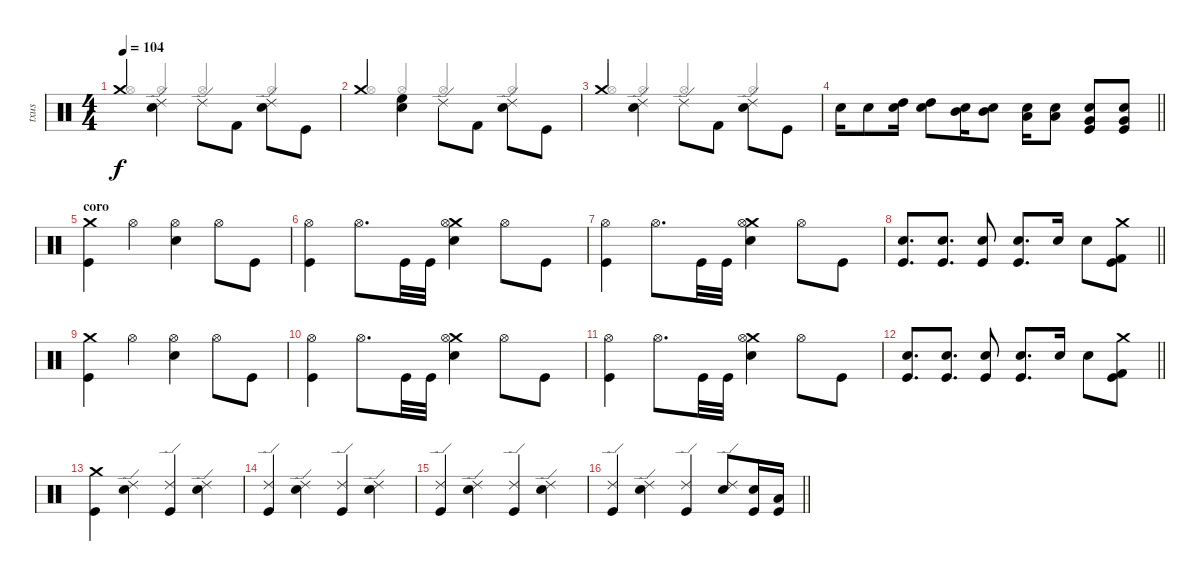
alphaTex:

\track ("txus" "txus") {instrument percussion}
\staff {score}
\articulation defaults
\voice
\ts (4 4)
\tempo 104
\clef neutral
\ks c "Crash medium (hit)".4{dy f}
("Ride (edge) 2" "Electric Snare (hit)").4{beam Down} "Ride (edge) 2".8 "Kick (hit) 2".8{beam Down} ("Ride (edge) 2" "Electric Snare (hit)").8{beam Down} "Kick (hit)".8 |
"Crash medium (hit)".4 ("High Floor Tom (hit)" "Electric Snare (hit)").4{beam Down} "Ride (edge) 2".8 "Kick (hit) 2".8{beam Down} ("Ride (edge) 2" "Electric Snare (hit)").8{beam Down} "Kick (hit)".8 |
"Crash medium (hit)".4 ("Ride (edge) 2" "Electric Snare (hit)").4{beam Down} "Ride (edge) 2".8 "Kick (hit) 2".8{beam Down} ("Ride (edge) 2" "Electric Snare (hit)").8{beam Down} "Kick (hit)".8 |
\barLineRight lightlight "Electric Snare (hit)".16 "Electric Snare (hit)".8
("High Tom (hit)" "Electric Snare (hit)").16 ("High Tom (hit)" "Electric Snare (hit)").8 ("Mid Tom (hit)" "Electric Snare (hit)").16 ("Mid Tom (hit)" "Electric Snare (hit)").8 ("Low Tom (hit)" "Electric Snare (hit)").16 ("Low Tom (hit)" "Electric Snare (hit)").8 ("Electric Snare (hit)" "Very Low Tom (hit)" "Kick (hit)").8 ("Electric Snare (hit)" "Very Low Tom (hit)" "Kick (hit)").8 |
\section ("" "coro")
("Crash medium (hit)" "Kick (hit)").4 "Hi-Hat (open)".4 ("Hi-Hat (open)" "Electric Snare (hit)").4 "Hi-Hat (open)".8 "Kick (hit)".8 |
("Hi-Hat (open)" "Kick (hit)").4 "Hi-Hat (open)".8{d} "Kick (hit)".32 "Kick (hit)".32 ("Crash medium (hit)" "Hi-Hat (open)" "Electric Snare (hit)").4 "Hi-Hat (open)".8 "Kick (hit)".8 |
("Hi-Hat (open)" "Kick (hit)").4 "Hi-Hat (open)".8{d} "Kick (hit)".32 "Kick (hit)".32 ("Crash medium (hit)" "Hi-Hat (open)" "Electric Snare (hit)").4 "Hi-Hat (open)".8 "Kick (hit)".8 |
\barLineRight lightlight
("Snare (hit) 2" "Kick (hit)").8{d} ("Snare (hit) 2" "Kick (hit)").8{d} ("Snare (hit) 2" "Kick (hit)").8 ("Snare (hit) 2" "Kick (hit)").8{d} "Snare (hit) 2".16 "Snare (hit) 2".8 ("Crash medium (hit)" "Kick (hit) 2" "Kick (hit)").8 |
("Crash medium (hit)" "Kick (hit)").4 "Hi-Hat (open)".4 ("Hi-Hat (open)" "Electric Snare (hit)").4 "Hi-Hat (open)".8 "Kick (hit)".8 |
("Hi-Hat (open)" "Kick (hit)").4 "Hi-Hat (open)".8{d} "Kick (hit)".32 "Kick (hit)".32 ("Crash medium (hit)" "Hi-Hat (open)" "Electric Snare (hit)").4 "Hi-Hat (open)".8 "Kick (hit)".8 |
("Hi-Hat (open)" "Kick (hit)").4 "Hi-Hat (open)".8{d} "Kick (hit)".32 "Kick (hit)".32 ("Crash medium (hit)" "Hi-Hat (open)" "Electric Snare (hit)").4 "Hi-Hat (open)".8 "Kick (hit)".8 |
\barLineRight lightlight
("Snare (hit) 2" "Kick (hit)").8{d} ("Snare (hit) 2" "Kick (hit)").8{d} ("Snare (hit) 2" "Kick (hit)").8 ("Snare (hit) 2" "Kick (hit)").8{d} "Snare (hit) 2".16 "Snare (hit) 2".8 ("Crash medium (hit)" "Kick (hit) 2" "Kick (hit)").8 |
("Crash medium (hit)" "Kick (hit)").4 ("Ride (edge) 2" "Electric Snare (hit)").4 ("Ride (edge) 2" "Kick (hit)").4 ("Ride (edge) 2" "Electric Snare (hit)").4 |
("Ride (edge) 2" "Kick (hit)").4 ("Ride (edge) 2" "Electric Snare (hit)").4 ("Ride (edge) 2" "Kick (hit)").4 ("Ride (edge) 2" "Electric Snare (hit)").4 |
("Ride (edge) 2" "Kick (hit)").4 ("Ride (edge) 2" "Electric Snare (hit)").4 ("Ride (edge) 2" "Kick (hit)").4 ("Ride (edge) 2" "Electric Snare (hit)").4 |
\barLineRight lightlight
("Ride (edge) 2" "Kick (hit)").4 ("Ride (edge) 2" "Electric Snare (hit)").4 ("Ride (edge) 2" "Kick (hit)").4 ("Ride (edge) 2" "Electric Snare (hit)").8 ("Electric Snare (hit)" "Kick (hit)").16 ("Low Tom (hit)" "Kick (hit)").16
\voice
\clef neutral
\ottava regular
\simile none
\ks c "Hi-Hat (open)".4{dy f beam Up} "Hi-Hat (open)".4{beam Up} "Hi-Hat (open)".4{beam Up} "Hi-Hat (open)".4{beam Up}
|
"Hi-Hat (open)".4{beam Up} "Hi-Hat (open)".4{beam Up} "Hi-Hat (open)".4{beam Up} "Hi-Hat (open)".4{beam Up} |
"Hi-Hat (open)".4{beam Up} "Hi-Hat (open)".4{beam Up} "Hi-Hat (open)".4{beam Up} "Hi-Hat (open)".4{beam Up} |
\barLineRight lightlight
|
|
|
|
\barLineRight lightlight
|
|
|
|
\barLineRight lightlight
|
|
|
|
\barLineRight lightlight
